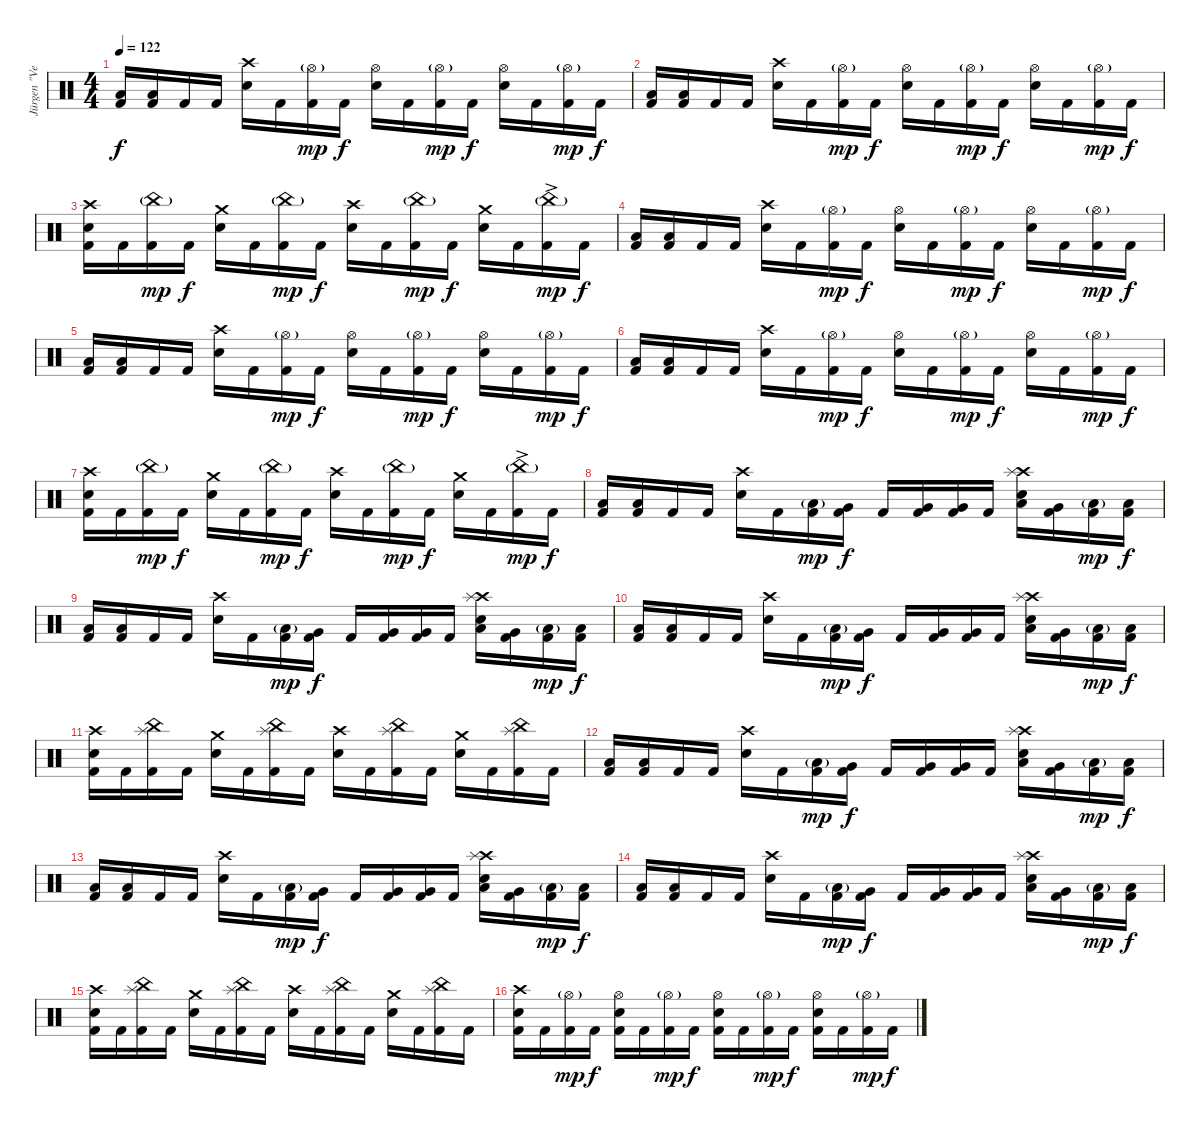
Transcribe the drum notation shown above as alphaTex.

\track ("Jürgen \"Ventor\" Reil Drums" "Jürgen \"Ve") {instrument percussion}
\staff {score}
\articulation defaults
\ts (4 4)
\tempo 122
\clef neutral
\ks c
("Low Floor Tom (hit)" "Kick (hit) 2").16{dy f} ("Low Floor Tom (hit)" "Kick (hit) 2").16 "Kick (hit) 2".16 "Kick (hit) 2".16 ("Crash high (hit)" "Snare (hit) 2").16 "Kick (hit) 2".16 ("Hi-Hat (open)"{g} "Kick (hit) 2").16{dy mp} "Kick (hit) 2".16{dy f} ("Hi-Hat (open)" "Snare (hit) 2").16 "Kick (hit) 2".16 ("Hi-Hat (open)"{g} "Kick (hit) 2").16{dy mp} "Kick (hit) 2".16{dy f} ("Hi-Hat (open)" "Snare (hit) 2").16 "Kick (hit) 2".16 ("Hi-Hat (open)"{g} "Kick (hit) 2").16{dy mp} "Kick (hit) 2".16{dy f} |
("Low Floor Tom (hit)" "Kick (hit) 2").16 ("Low Floor Tom (hit)" "Kick (hit) 2").16 "Kick (hit) 2".16 "Kick (hit) 2".16 ("Crash high (hit)" "Snare (hit) 2").16 "Kick (hit) 2".16 ("Hi-Hat (open)"{g} "Kick (hit) 2").16{dy mp} "Kick (hit) 2".16{dy f} ("Hi-Hat (open)" "Snare (hit) 2").16 "Kick (hit) 2".16 ("Hi-Hat (open)"{g} "Kick (hit) 2").16{dy mp} "Kick (hit) 2".16{dy f} ("Hi-Hat (open)" "Snare (hit) 2").16 "Kick (hit) 2".16 ("Hi-Hat (open)"{g} "Kick (hit) 2").16{dy mp} "Kick (hit) 2".16{dy f} |
("Crash high (hit)" "Snare (hit) 2" "Kick (hit) 2").16 "Kick (hit) 2".16 ("China (hit)"{g} "Kick (hit) 2").16{dy mp} "Kick (hit) 2".16{dy f} ("Crash medium (hit)" "Snare (hit) 2").16 "Kick (hit) 2".16 ("China (hit)"{g} "Kick (hit) 2").16{dy mp} "Kick (hit) 2".16{dy f} ("Crash high (hit)" "Snare (hit) 2").16 "Kick (hit) 2".16 ("China (hit)"{g} "Kick (hit) 2").16{dy mp} "Kick (hit) 2".16{dy f} ("Crash medium (hit)" "Snare (hit) 2").16 "Kick (hit) 2".16 ("China (hit)"{g ac} "Kick (hit) 2").16{dy mp} "Kick (hit) 2".16{dy f} |
("Low Floor Tom (hit)" "Kick (hit) 2").16 ("Low Floor Tom (hit)" "Kick (hit) 2").16 "Kick (hit) 2".16 "Kick (hit) 2".16 ("Crash high (hit)" "Snare (hit) 2").16 "Kick (hit) 2".16 ("Hi-Hat (open)"{g} "Kick (hit) 2").16{dy mp} "Kick (hit) 2".16{dy f} ("Hi-Hat (open)" "Snare (hit) 2").16 "Kick (hit) 2".16 ("Hi-Hat (open)"{g} "Kick (hit) 2").16{dy mp} "Kick (hit) 2".16{dy f} ("Hi-Hat (open)" "Snare (hit) 2").16 "Kick (hit) 2".16 ("Hi-Hat (open)"{g} "Kick (hit) 2").16{dy mp} "Kick (hit) 2".16{dy f} |
("Low Floor Tom (hit)" "Kick (hit) 2").16 ("Low Floor Tom (hit)" "Kick (hit) 2").16 "Kick (hit) 2".16 "Kick (hit) 2".16 ("Crash high (hit)" "Snare (hit) 2").16 "Kick (hit) 2".16 ("Hi-Hat (open)"{g} "Kick (hit) 2").16{dy mp} "Kick (hit) 2".16{dy f} ("Hi-Hat (open)" "Snare (hit) 2").16 "Kick (hit) 2".16 ("Hi-Hat (open)"{g} "Kick (hit) 2").16{dy mp} "Kick (hit) 2".16{dy f} ("Hi-Hat (open)" "Snare (hit) 2").16 "Kick (hit) 2".16 ("Hi-Hat (open)"{g} "Kick (hit) 2").16{dy mp} "Kick (hit) 2".16{dy f} |
("Low Floor Tom (hit)" "Kick (hit) 2").16 ("Low Floor Tom (hit)" "Kick (hit) 2").16 "Kick (hit) 2".16 "Kick (hit) 2".16 ("Crash high (hit)" "Snare (hit) 2").16 "Kick (hit) 2".16 ("Hi-Hat (open)"{g} "Kick (hit) 2").16{dy mp} "Kick (hit) 2".16{dy f} ("Hi-Hat (open)" "Snare (hit) 2").16 "Kick (hit) 2".16 ("Hi-Hat (open)"{g} "Kick (hit) 2").16{dy mp} "Kick (hit) 2".16{dy f} ("Hi-Hat (open)" "Snare (hit) 2").16 "Kick (hit) 2".16 ("Hi-Hat (open)"{g} "Kick (hit) 2").16{dy mp} "Kick (hit) 2".16{dy f} |
("Crash high (hit)" "Snare (hit) 2" "Kick (hit) 2").16 "Kick (hit) 2".16 ("China (hit)"{g} "Kick (hit) 2").16{dy mp} "Kick (hit) 2".16{dy f} ("Crash medium (hit)" "Snare (hit) 2").16 "Kick (hit) 2".16 ("China (hit)"{g} "Kick (hit) 2").16{dy mp} "Kick (hit) 2".16{dy f} ("Crash high (hit)" "Snare (hit) 2").16 "Kick (hit) 2".16 ("China (hit)"{g} "Kick (hit) 2").16{dy mp} "Kick (hit) 2".16{dy f} ("Crash medium (hit)" "Snare (hit) 2").16 "Kick (hit) 2".16 ("China (hit)"{g ac} "Kick (hit) 2").16{dy mp} "Kick (hit) 2".16{dy f} |
("Low Floor Tom (hit)" "Kick (hit) 2").16 ("Low Floor Tom (hit)" "Kick (hit) 2").16 "Kick (hit) 2".16 "Kick (hit) 2".16 ("Crash high (hit)" "Snare (hit) 2").16 "Kick (hit) 2".16 ("Low Tom (hit)"{g} "Kick (hit) 2").16{dy mp} ("Very Low Tom (hit)" "Kick (hit) 2").16{dy f} "Kick (hit) 2".16 ("Very Low Tom (hit)" "Kick (hit) 2").16 ("Very Low Tom (hit)" "Kick (hit) 2").16 "Kick (hit) 2".16 ("Low Floor Tom (hit)" "Crash high (hit)" "Splash (hit)" "Snare (hit) 2").16 ("Very Low Tom (hit)" "Kick (hit) 2").16 ("Low Floor Tom (hit)"{g} "Kick (hit) 2").16{dy mp} ("Low Floor Tom (hit)" "Kick (hit) 2").16{dy f} |
("Low Floor Tom (hit)" "Kick (hit) 2").16 ("Low Floor Tom (hit)" "Kick (hit) 2").16 "Kick (hit) 2".16 "Kick (hit) 2".16 ("Crash high (hit)" "Snare (hit) 2").16 "Kick (hit) 2".16 ("Low Tom (hit)"{g} "Kick (hit) 2").16{dy mp} ("Very Low Tom (hit)" "Kick (hit) 2").16{dy f} "Kick (hit) 2".16 ("Very Low Tom (hit)" "Kick (hit) 2").16 ("Very Low Tom (hit)" "Kick (hit) 2").16 "Kick (hit) 2".16 ("Low Floor Tom (hit)" "Crash high (hit)" "Splash (hit)" "Snare (hit) 2").16 ("Very Low Tom (hit)" "Kick (hit) 2").16 ("Low Floor Tom (hit)"{g} "Kick (hit) 2").16{dy mp} ("Low Floor Tom (hit)" "Kick (hit) 2").16{dy f} |
("Low Floor Tom (hit)" "Kick (hit) 2").16 ("Low Floor Tom (hit)" "Kick (hit) 2").16 "Kick (hit) 2".16 "Kick (hit) 2".16 ("Crash high (hit)" "Snare (hit) 2").16 "Kick (hit) 2".16 ("Low Tom (hit)"{g} "Kick (hit) 2").16{dy mp} ("Very Low Tom (hit)" "Kick (hit) 2").16{dy f} "Kick (hit) 2".16 ("Very Low Tom (hit)" "Kick (hit) 2").16 ("Very Low Tom (hit)" "Kick (hit) 2").16 "Kick (hit) 2".16 ("Low Floor Tom (hit)" "Crash high (hit)" "Splash (hit)" "Snare (hit) 2").16 ("Very Low Tom (hit)" "Kick (hit) 2").16 ("Low Floor Tom (hit)"{g} "Kick (hit) 2").16{dy mp} ("Low Floor Tom (hit)" "Kick (hit) 2").16{dy f} |
("Crash high (hit)" "Snare (hit) 2" "Kick (hit) 2").16 "Kick (hit) 2".16 ("China (hit)" "Splash (hit)" "Kick (hit) 2").16 "Kick (hit) 2".16 ("Crash medium (hit)" "Snare (hit) 2").16 "Kick (hit) 2".16 ("China (hit)" "Splash (hit)" "Kick (hit) 2").16 "Kick (hit) 2".16 ("Crash high (hit)" "Snare (hit) 2").16 "Kick (hit) 2".16 ("China (hit)" "Splash (hit)" "Kick (hit) 2").16 "Kick (hit) 2".16 ("Crash medium (hit)" "Snare (hit) 2").16 "Kick (hit) 2".16 ("China (hit)" "Splash (hit)" "Kick (hit) 2").16 "Kick (hit) 2".16 |
("Low Floor Tom (hit)" "Kick (hit) 2").16 ("Low Floor Tom (hit)" "Kick (hit) 2").16 "Kick (hit) 2".16 "Kick (hit) 2".16 ("Crash high (hit)" "Snare (hit) 2").16 "Kick (hit) 2".16 ("Low Tom (hit)"{g} "Kick (hit) 2").16{dy mp} ("Very Low Tom (hit)" "Kick (hit) 2").16{dy f} "Kick (hit) 2".16 ("Very Low Tom (hit)" "Kick (hit) 2").16 ("Very Low Tom (hit)" "Kick (hit) 2").16 "Kick (hit) 2".16 ("Low Floor Tom (hit)" "Crash high (hit)" "Splash (hit)" "Snare (hit) 2").16 ("Very Low Tom (hit)" "Kick (hit) 2").16 ("Low Floor Tom (hit)"{g} "Kick (hit) 2").16{dy mp} ("Low Floor Tom (hit)" "Kick (hit) 2").16{dy f} |
("Low Floor Tom (hit)" "Kick (hit) 2").16 ("Low Floor Tom (hit)" "Kick (hit) 2").16 "Kick (hit) 2".16 "Kick (hit) 2".16 ("Crash high (hit)" "Snare (hit) 2").16 "Kick (hit) 2".16 ("Low Tom (hit)"{g} "Kick (hit) 2").16{dy mp} ("Very Low Tom (hit)" "Kick (hit) 2").16{dy f} "Kick (hit) 2".16 ("Very Low Tom (hit)" "Kick (hit) 2").16 ("Very Low Tom (hit)" "Kick (hit) 2").16 "Kick (hit) 2".16 ("Low Floor Tom (hit)" "Crash high (hit)" "Splash (hit)" "Snare (hit) 2").16 ("Very Low Tom (hit)" "Kick (hit) 2").16 ("Low Floor Tom (hit)"{g} "Kick (hit) 2").16{dy mp} ("Low Floor Tom (hit)" "Kick (hit) 2").16{dy f} |
("Low Floor Tom (hit)" "Kick (hit) 2").16 ("Low Floor Tom (hit)" "Kick (hit) 2").16 "Kick (hit) 2".16 "Kick (hit) 2".16 ("Crash high (hit)" "Snare (hit) 2").16 "Kick (hit) 2".16 ("Low Tom (hit)"{g} "Kick (hit) 2").16{dy mp} ("Very Low Tom (hit)" "Kick (hit) 2").16{dy f} "Kick (hit) 2".16 ("Very Low Tom (hit)" "Kick (hit) 2").16 ("Very Low Tom (hit)" "Kick (hit) 2").16 "Kick (hit) 2".16 ("Low Floor Tom (hit)" "Crash high (hit)" "Splash (hit)" "Snare (hit) 2").16 ("Very Low Tom (hit)" "Kick (hit) 2").16 ("Low Floor Tom (hit)"{g} "Kick (hit) 2").16{dy mp} ("Low Floor Tom (hit)" "Kick (hit) 2").16{dy f} |
("Crash high (hit)" "Snare (hit) 2" "Kick (hit) 2").16 "Kick (hit) 2".16 ("China (hit)" "Splash (hit)" "Kick (hit) 2").16 "Kick (hit) 2".16 ("Crash medium (hit)" "Snare (hit) 2").16 "Kick (hit) 2".16 ("China (hit)" "Splash (hit)" "Kick (hit) 2").16 "Kick (hit) 2".16 ("Crash high (hit)" "Snare (hit) 2").16 "Kick (hit) 2".16 ("China (hit)" "Splash (hit)" "Kick (hit) 2").16 "Kick (hit) 2".16 ("Crash medium (hit)" "Snare (hit) 2").16 "Kick (hit) 2".16 ("China (hit)" "Splash (hit)" "Kick (hit) 2").16 "Kick (hit) 2".16 |
("Snare (hit) 2" "Crash high (hit)" "Kick (hit) 2").16 "Kick (hit) 2".16 ("Hi-Hat (open)"{g} "Kick (hit) 2").16{dy mp} "Kick (hit) 2".16{dy f} ("Snare (hit) 2" "Hi-Hat (open)" "Kick (hit) 2").16 "Kick (hit) 2".16 ("Hi-Hat (open)"{g} "Kick (hit) 2").16{dy mp} "Kick (hit) 2".16{dy f} ("Snare (hit) 2" "Hi-Hat (open)" "Kick (hit) 2").16 "Kick (hit) 2".16 ("Hi-Hat (open)"{g} "Kick (hit) 2").16{dy mp} "Kick (hit) 2".16{dy f} ("Snare (hit) 2" "Hi-Hat (open)" "Kick (hit) 2").16 "Kick (hit) 2".16 ("Hi-Hat (open)"{g} "Kick (hit) 2").16{dy mp} "Kick (hit) 2".16{dy f}
